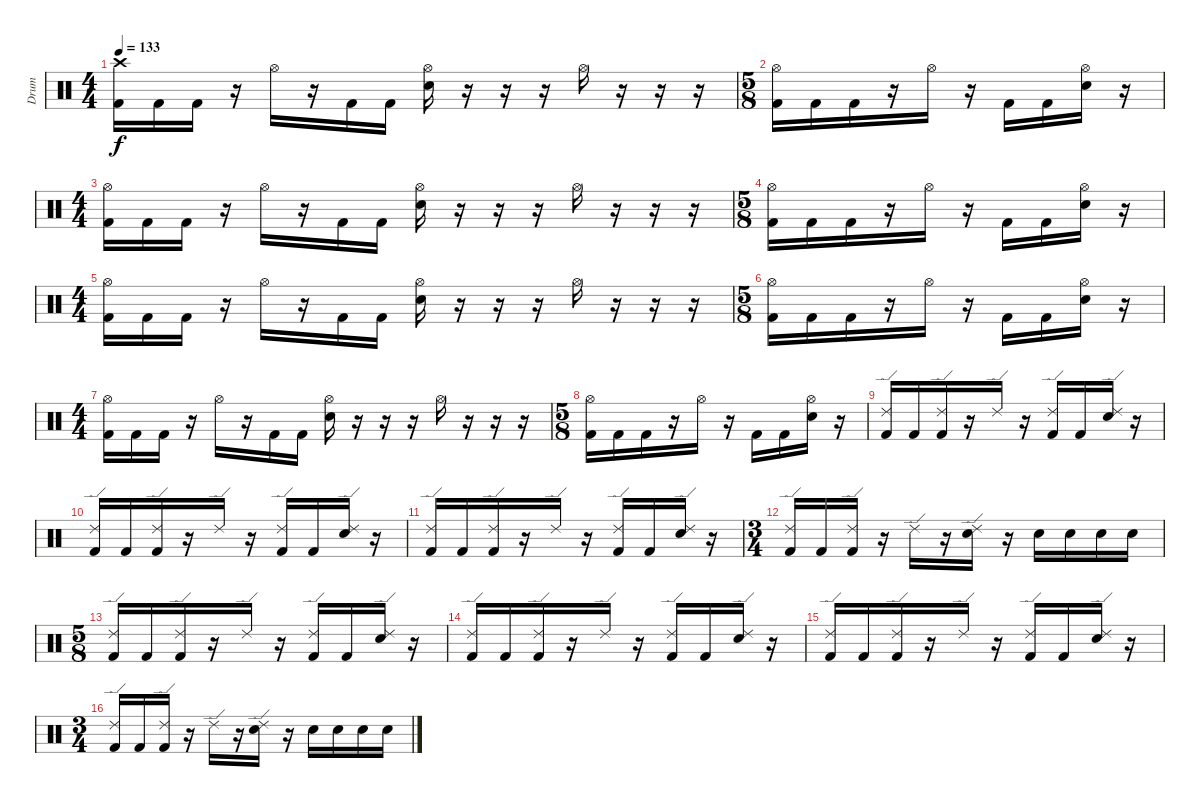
\track ("Drum" "Drum") {instrument percussion}
\staff {score}
\articulation defaults
\ts (4 4)
\tempo 133
\clef neutral
\ks c
("Crash high (hit)" "Kick (hit) 2").16{dy f} "Kick (hit) 2".16 "Kick (hit) 2".16 r.16 "Hi-Hat (open)".16 r.16 "Kick (hit) 2".16 "Kick (hit) 2".16 ("Hi-Hat (open)" "Snare (hit) 2").16 r.16 r.16 r.16 "Hi-Hat (open)".16 r.16 r.16 r.16 |
\ts (5 8)
("Hi-Hat (open)" "Kick (hit) 2").16 "Kick (hit) 2".16 "Kick (hit) 2".16 r.16 "Hi-Hat (open)".16 r.16 "Kick (hit) 2".16 "Kick (hit) 2".16 ("Hi-Hat (open)" "Snare (hit) 2").16 r.16 |
\ts (4 4)
("Hi-Hat (open)" "Kick (hit) 2").16 "Kick (hit) 2".16 "Kick (hit) 2".16 r.16 "Hi-Hat (open)".16 r.16 "Kick (hit) 2".16 "Kick (hit) 2".16 ("Hi-Hat (open)" "Snare (hit) 2").16 r.16 r.16 r.16 "Hi-Hat (open)".16 r.16 r.16 r.16 |
\ts (5 8)
("Hi-Hat (open)" "Kick (hit) 2").16 "Kick (hit) 2".16 "Kick (hit) 2".16 r.16 "Hi-Hat (open)".16 r.16 "Kick (hit) 2".16 "Kick (hit) 2".16 ("Hi-Hat (open)" "Snare (hit) 2").16 r.16 |
\ts (4 4)
("Hi-Hat (open)" "Kick (hit) 2").16 "Kick (hit) 2".16 "Kick (hit) 2".16 r.16 "Hi-Hat (open)".16 r.16 "Kick (hit) 2".16 "Kick (hit) 2".16 ("Hi-Hat (open)" "Snare (hit) 2").16 r.16 r.16 r.16 "Hi-Hat (open)".16 r.16 r.16 r.16 |
\ts (5 8)
("Hi-Hat (open)" "Kick (hit) 2").16 "Kick (hit) 2".16 "Kick (hit) 2".16 r.16 "Hi-Hat (open)".16 r.16 "Kick (hit) 2".16 "Kick (hit) 2".16 ("Hi-Hat (open)" "Snare (hit) 2").16 r.16 |
\ts (4 4)
("Hi-Hat (open)" "Kick (hit) 2").16 "Kick (hit) 2".16 "Kick (hit) 2".16 r.16 "Hi-Hat (open)".16 r.16 "Kick (hit) 2".16 "Kick (hit) 2".16 ("Hi-Hat (open)" "Snare (hit) 2").16 r.16 r.16 r.16 "Hi-Hat (open)".16 r.16 r.16 r.16 |
\ts (5 8)
("Hi-Hat (open)" "Kick (hit) 2").16 "Kick (hit) 2".16 "Kick (hit) 2".16 r.16 "Hi-Hat (open)".16 r.16 "Kick (hit) 2".16 "Kick (hit) 2".16 ("Hi-Hat (open)" "Snare (hit) 2").16 r.16 |
("Ride (edge) 2" "Kick (hit) 2").16 "Kick (hit) 2".16 ("Ride (edge) 2" "Kick (hit) 2").16 r.16 "Ride (edge) 2".16 r.16 ("Ride (edge) 2" "Kick (hit) 2").16 "Kick (hit) 2".16 ("Ride (edge) 2" "Snare (hit) 2").16 r.16 |
("Ride (edge) 2" "Kick (hit) 2").16 "Kick (hit) 2".16 ("Ride (edge) 2" "Kick (hit) 2").16 r.16 "Ride (edge) 2".16 r.16 ("Ride (edge) 2" "Kick (hit) 2").16 "Kick (hit) 2".16 ("Ride (edge) 2" "Snare (hit) 2").16 r.16 |
("Ride (edge) 2" "Kick (hit) 2").16 "Kick (hit) 2".16 ("Ride (edge) 2" "Kick (hit) 2").16 r.16 "Ride (edge) 2".16 r.16 ("Ride (edge) 2" "Kick (hit) 2").16 "Kick (hit) 2".16 ("Ride (edge) 2" "Snare (hit) 2").16 r.16 |
\ts (3 4)
("Ride (edge) 2" "Kick (hit) 2").16 "Kick (hit) 2".16 ("Ride (edge) 2" "Kick (hit) 2").16 r.16 "Ride (edge) 2".16 r.16 ("Ride (edge) 2" "Snare (hit) 2").16 r.16 "Snare (hit) 2".16 "Snare (hit) 2".16 "Snare (hit) 2".16 "Snare (hit) 2".16 |
\ts (5 8)
("Ride (edge) 2" "Kick (hit) 2").16 "Kick (hit) 2".16 ("Ride (edge) 2" "Kick (hit) 2").16 r.16 "Ride (edge) 2".16 r.16 ("Ride (edge) 2" "Kick (hit) 2").16 "Kick (hit) 2".16 ("Ride (edge) 2" "Snare (hit) 2").16 r.16 |
("Ride (edge) 2" "Kick (hit) 2").16 "Kick (hit) 2".16 ("Ride (edge) 2" "Kick (hit) 2").16 r.16 "Ride (edge) 2".16 r.16 ("Ride (edge) 2" "Kick (hit) 2").16 "Kick (hit) 2".16 ("Ride (edge) 2" "Snare (hit) 2").16 r.16 |
("Ride (edge) 2" "Kick (hit) 2").16 "Kick (hit) 2".16 ("Ride (edge) 2" "Kick (hit) 2").16 r.16 "Ride (edge) 2".16 r.16 ("Ride (edge) 2" "Kick (hit) 2").16 "Kick (hit) 2".16 ("Ride (edge) 2" "Snare (hit) 2").16 r.16 |
\ts (3 4)
("Ride (edge) 2" "Kick (hit) 2").16 "Kick (hit) 2".16 ("Ride (edge) 2" "Kick (hit) 2").16 r.16 "Ride (edge) 2".16 r.16 ("Ride (edge) 2" "Snare (hit) 2").16 r.16 "Snare (hit) 2".16 "Snare (hit) 2".16 "Snare (hit) 2".16 "Snare (hit) 2".16
